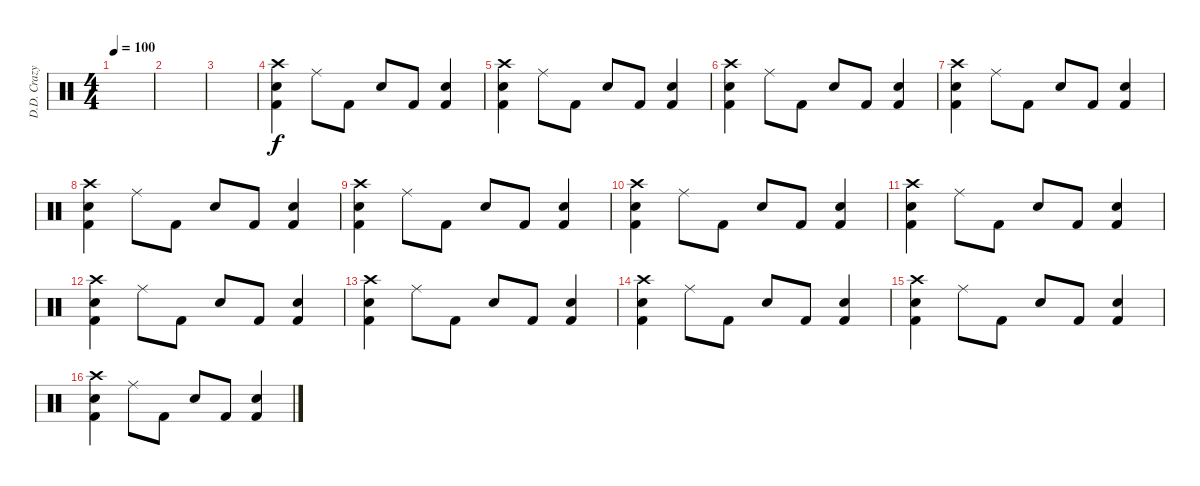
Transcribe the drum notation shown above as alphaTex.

\track ("D.D. Crazy " "D.D. Crazy") {instrument percussion}
\staff {score}
\articulation defaults
\ts (4 4)
\tempo 100
\clef neutral
\ks c
|
|
|
("Crash high (hit)" "Snare (hit) 2" "Kick (hit) 2").4 "Ride (middle)".8 "Kick (hit) 2".8 "Snare (hit) 2".8 "Kick (hit) 2".8 ("Snare (hit) 2" "Kick (hit) 2").4 |
("Crash high (hit)" "Snare (hit) 2" "Kick (hit) 2").4 "Ride (middle)".8 "Kick (hit) 2".8 "Snare (hit) 2".8 "Kick (hit) 2".8 ("Snare (hit) 2" "Kick (hit) 2").4 |
("Crash high (hit)" "Snare (hit) 2" "Kick (hit) 2").4 "Ride (middle)".8 "Kick (hit) 2".8 "Snare (hit) 2".8 "Kick (hit) 2".8 ("Snare (hit) 2" "Kick (hit) 2").4 |
("Crash high (hit)" "Snare (hit) 2" "Kick (hit) 2").4 "Ride (middle)".8 "Kick (hit) 2".8 "Snare (hit) 2".8 "Kick (hit) 2".8 ("Snare (hit) 2" "Kick (hit) 2").4 |
("Crash high (hit)" "Snare (hit) 2" "Kick (hit) 2").4 "Ride (middle)".8 "Kick (hit) 2".8 "Snare (hit) 2".8 "Kick (hit) 2".8 ("Snare (hit) 2" "Kick (hit) 2").4 |
("Crash high (hit)" "Snare (hit) 2" "Kick (hit) 2").4 "Ride (middle)".8 "Kick (hit) 2".8 "Snare (hit) 2".8 "Kick (hit) 2".8 ("Snare (hit) 2" "Kick (hit) 2").4 |
("Crash high (hit)" "Snare (hit) 2" "Kick (hit) 2").4 "Ride (middle)".8 "Kick (hit) 2".8 "Snare (hit) 2".8 "Kick (hit) 2".8 ("Snare (hit) 2" "Kick (hit) 2").4 |
("Crash high (hit)" "Snare (hit) 2" "Kick (hit) 2").4 "Ride (middle)".8 "Kick (hit) 2".8 "Snare (hit) 2".8 "Kick (hit) 2".8 ("Snare (hit) 2" "Kick (hit) 2").4 |
("Crash high (hit)" "Snare (hit) 2" "Kick (hit) 2").4 "Ride (middle)".8 "Kick (hit) 2".8 "Snare (hit) 2".8 "Kick (hit) 2".8 ("Snare (hit) 2" "Kick (hit) 2").4 |
("Crash high (hit)" "Snare (hit) 2" "Kick (hit) 2").4 "Ride (middle)".8 "Kick (hit) 2".8 "Snare (hit) 2".8 "Kick (hit) 2".8 ("Snare (hit) 2" "Kick (hit) 2").4 |
("Crash high (hit)" "Snare (hit) 2" "Kick (hit) 2").4 "Ride (middle)".8 "Kick (hit) 2".8 "Snare (hit) 2".8 "Kick (hit) 2".8 ("Snare (hit) 2" "Kick (hit) 2").4 |
("Crash high (hit)" "Snare (hit) 2" "Kick (hit) 2").4 "Ride (middle)".8 "Kick (hit) 2".8 "Snare (hit) 2".8 "Kick (hit) 2".8 ("Snare (hit) 2" "Kick (hit) 2").4 |
("Crash high (hit)" "Snare (hit) 2" "Kick (hit) 2").4 "Ride (middle)".8 "Kick (hit) 2".8 "Snare (hit) 2".8 "Kick (hit) 2".8 ("Snare (hit) 2" "Kick (hit) 2").4
